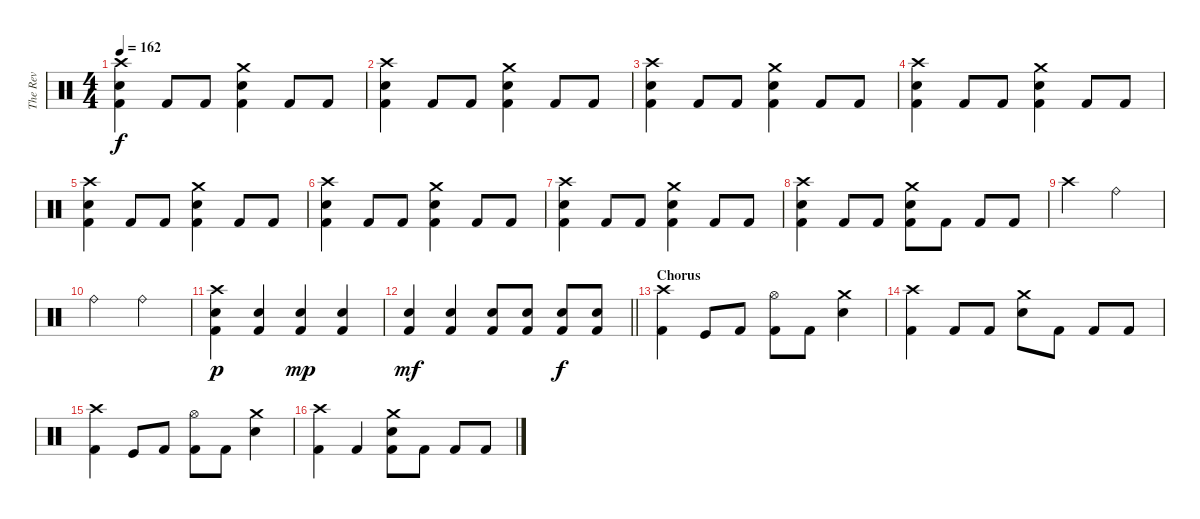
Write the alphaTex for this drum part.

\track ("The Rev" "The Rev") {instrument percussion}
\staff {score}
\articulation defaults
\ts (4 4)
\tempo 162
\clef neutral
\ks c
("Crash high (hit)" "Electric Snare (hit)" "Kick (hit) 2").4{dy f} "Kick (hit) 2".8 "Kick (hit) 2".8 ("Crash medium (hit)" "Electric Snare (hit)" "Kick (hit) 2").4 "Kick (hit) 2".8 "Kick (hit) 2".8 |
("Crash high (hit)" "Electric Snare (hit)" "Kick (hit) 2").4 "Kick (hit) 2".8 "Kick (hit) 2".8 ("Crash medium (hit)" "Electric Snare (hit)" "Kick (hit) 2").4 "Kick (hit) 2".8 "Kick (hit) 2".8 |
("Crash high (hit)" "Electric Snare (hit)" "Kick (hit) 2").4 "Kick (hit) 2".8 "Kick (hit) 2".8 ("Crash medium (hit)" "Electric Snare (hit)" "Kick (hit) 2").4 "Kick (hit) 2".8 "Kick (hit) 2".8 |
("Crash high (hit)" "Electric Snare (hit)" "Kick (hit) 2").4 "Kick (hit) 2".8 "Kick (hit) 2".8 ("Crash medium (hit)" "Electric Snare (hit)" "Kick (hit) 2").4 "Kick (hit) 2".8 "Kick (hit) 2".8 |
("Crash high (hit)" "Electric Snare (hit)" "Kick (hit) 2").4 "Kick (hit) 2".8 "Kick (hit) 2".8 ("Crash medium (hit)" "Electric Snare (hit)" "Kick (hit) 2").4 "Kick (hit) 2".8 "Kick (hit) 2".8 |
("Crash high (hit)" "Electric Snare (hit)" "Kick (hit) 2").4 "Kick (hit) 2".8 "Kick (hit) 2".8 ("Crash medium (hit)" "Electric Snare (hit)" "Kick (hit) 2").4 "Kick (hit) 2".8 "Kick (hit) 2".8 |
("Crash high (hit)" "Electric Snare (hit)" "Kick (hit) 2").4 "Kick (hit) 2".8 "Kick (hit) 2".8 ("Crash medium (hit)" "Electric Snare (hit)" "Kick (hit) 2").4 "Kick (hit) 2".8 "Kick (hit) 2".8 |
("Crash high (hit)" "Electric Snare (hit)" "Kick (hit) 2").4 "Kick (hit) 2".8 "Kick (hit) 2".8 ("Crash medium (hit)" "Electric Snare (hit)" "Kick (hit) 2").8 "Kick (hit) 2".8 "Kick (hit) 2".8 "Kick (hit) 2".8 |
"Crash high (hit)".2 "Ride (bell)".2 |
"Ride (bell)".2 "Ride (bell)".2 |
("Crash high (hit)" "Electric Snare (hit)" "Kick (hit) 2").4{dy p} ("Electric Snare (hit)" "Kick (hit) 2").4 ("Electric Snare (hit)" "Kick (hit) 2").4{dy mp} ("Electric Snare (hit)" "Kick (hit) 2").4 |
\barLineRight lightlight
("Electric Snare (hit)" "Kick (hit) 2").4{dy mf} ("Electric Snare (hit)" "Kick (hit) 2").4 ("Electric Snare (hit)" "Kick (hit) 2").8 ("Electric Snare (hit)" "Kick (hit) 2").8 ("Electric Snare (hit)" "Kick (hit) 2").8{dy f} ("Electric Snare (hit)" "Kick (hit) 2").8 |
\section ("" "Chorus")
("Crash high (hit)" "Kick (hit) 2").4 "Kick (hit)".8 "Kick (hit) 2".8 ("Hi-Hat (open)" "Kick (hit) 2").8 "Kick (hit) 2".8 ("Crash medium (hit)" "Electric Snare (hit)").4 |
("Crash high (hit)" "Kick (hit) 2").4 "Kick (hit) 2".8 "Kick (hit) 2".8 ("Crash medium (hit)" "Electric Snare (hit)").8 "Kick (hit) 2".8 "Kick (hit) 2".8 "Kick (hit) 2".8 |
("Crash high (hit)" "Kick (hit) 2").4 "Kick (hit)".8 "Kick (hit) 2".8 ("Hi-Hat (open)" "Kick (hit) 2").8 "Kick (hit) 2".8 ("Crash medium (hit)" "Electric Snare (hit)").4 |
("Crash high (hit)" "Kick (hit) 2").4 "Kick (hit) 2".4 ("Crash medium (hit)" "Electric Snare (hit)" "Kick (hit) 2").8 "Kick (hit) 2".8 "Kick (hit) 2".8 "Kick (hit) 2".8
